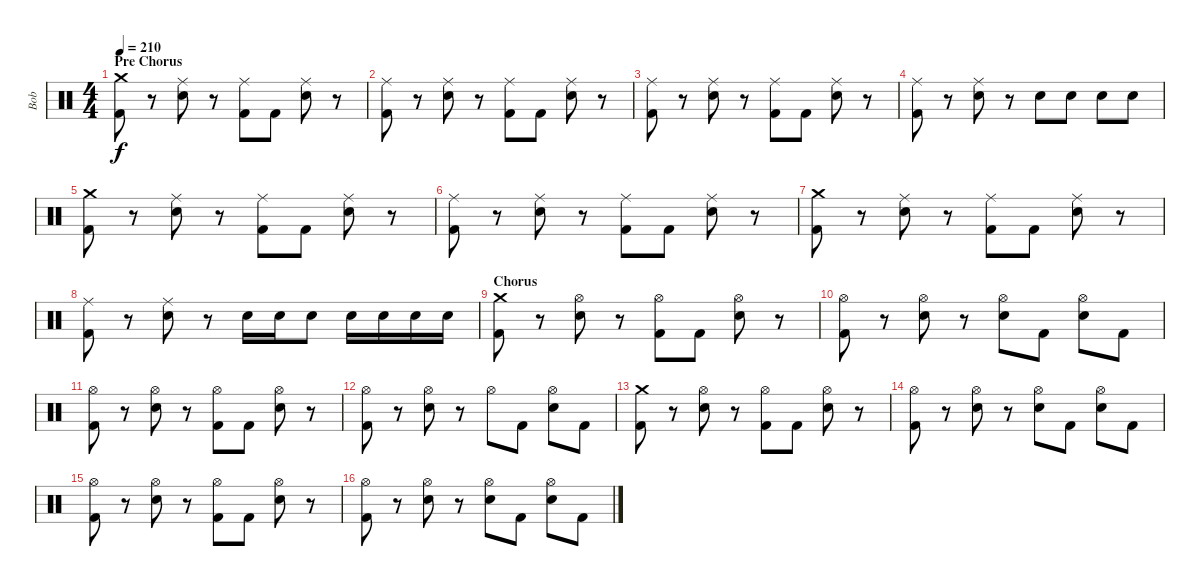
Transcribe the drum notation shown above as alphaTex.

\track ("Bob" "Bob") {instrument percussion}
\staff {score}
\articulation defaults
\ts (4 4)
\section ("" "Pre Chorus")
\tempo 210
\clef neutral
\ks c
("Crash medium (hit)" "Kick (hit) 2").8{dy f} r.8 ("Ride (middle)" "Electric Snare (hit)").8 r.8 ("Ride (middle)" "Kick (hit) 2").8 "Kick (hit) 2".8 ("Ride (middle)" "Electric Snare (hit)").8 r.8 |
("Ride (middle)" "Kick (hit) 2").8 r.8 ("Ride (middle)" "Electric Snare (hit)").8 r.8 ("Ride (middle)" "Kick (hit) 2").8 "Kick (hit) 2".8 ("Ride (middle)" "Electric Snare (hit)").8 r.8 |
("Ride (middle)" "Kick (hit) 2").8 r.8 ("Ride (middle)" "Electric Snare (hit)").8 r.8 ("Ride (middle)" "Kick (hit) 2").8 "Kick (hit) 2".8 ("Ride (middle)" "Electric Snare (hit)").8 r.8 |
("Ride (middle)" "Kick (hit) 2").8 r.8 ("Ride (middle)" "Electric Snare (hit)").8 r.8 "Electric Snare (hit)".8 "Electric Snare (hit)".8 "Electric Snare (hit)".8 "Electric Snare (hit)".8 |
("Crash medium (hit)" "Kick (hit) 2").8 r.8 ("Ride (middle)" "Electric Snare (hit)").8 r.8 ("Ride (middle)" "Kick (hit) 2").8 "Kick (hit) 2".8 ("Ride (middle)" "Electric Snare (hit)").8 r.8 |
("Ride (middle)" "Kick (hit) 2").8 r.8 ("Ride (middle)" "Electric Snare (hit)").8 r.8 ("Ride (middle)" "Kick (hit) 2").8 "Kick (hit) 2".8 ("Ride (middle)" "Electric Snare (hit)").8 r.8 |
("Crash medium (hit)" "Kick (hit) 2").8 r.8 ("Ride (middle)" "Electric Snare (hit)").8 r.8 ("Ride (middle)" "Kick (hit) 2").8 "Kick (hit) 2".8 ("Ride (middle)" "Electric Snare (hit)").8 r.8 |
("Ride (middle)" "Kick (hit) 2").8 r.8 ("Ride (middle)" "Electric Snare (hit)").8 r.8 "Electric Snare (hit)".16 "Electric Snare (hit)".16 "Electric Snare (hit)".8 "Electric Snare (hit)".16 "Electric Snare (hit)".16 "Electric Snare (hit)".16 "Electric Snare (hit)".16 |
\section ("" "Chorus")
("Crash medium (hit)" "Kick (hit) 2").8 r.8 ("Hi-Hat (open)" "Electric Snare (hit)").8 r.8 ("Hi-Hat (open)" "Kick (hit) 2").8 "Kick (hit) 2".8 ("Hi-Hat (open)" "Electric Snare (hit)").8 r.8 |
("Hi-Hat (open)" "Kick (hit) 2").8 r.8 ("Hi-Hat (open)" "Electric Snare (hit)").8 r.8 ("Hi-Hat (open)" "Electric Snare (hit)").8 "Kick (hit) 2".8 ("Hi-Hat (open)" "Electric Snare (hit)").8 "Kick (hit) 2".8 |
("Hi-Hat (open)" "Kick (hit) 2").8 r.8 ("Hi-Hat (open)" "Electric Snare (hit)").8 r.8 ("Hi-Hat (open)" "Kick (hit) 2").8 "Kick (hit) 2".8 ("Hi-Hat (open)" "Electric Snare (hit)").8 r.8 |
("Hi-Hat (open)" "Kick (hit) 2").8 r.8 ("Hi-Hat (open)" "Electric Snare (hit)").8 r.8 "Hi-Hat (open)".8 "Kick (hit) 2".8 ("Hi-Hat (open)" "Electric Snare (hit)").8 "Kick (hit) 2".8 |
("Crash medium (hit)" "Kick (hit) 2").8 r.8 ("Hi-Hat (open)" "Electric Snare (hit)").8 r.8 ("Hi-Hat (open)" "Kick (hit) 2").8 "Kick (hit) 2".8 ("Hi-Hat (open)" "Electric Snare (hit)").8 r.8 |
("Hi-Hat (open)" "Kick (hit) 2").8 r.8 ("Hi-Hat (open)" "Electric Snare (hit)").8 r.8 ("Hi-Hat (open)" "Electric Snare (hit)").8 "Kick (hit) 2".8 ("Hi-Hat (open)" "Electric Snare (hit)").8 "Kick (hit) 2".8 |
("Hi-Hat (open)" "Kick (hit) 2").8 r.8 ("Hi-Hat (open)" "Electric Snare (hit)").8 r.8 ("Hi-Hat (open)" "Kick (hit) 2").8 "Kick (hit) 2".8 ("Hi-Hat (open)" "Electric Snare (hit)").8 r.8 |
("Hi-Hat (open)" "Kick (hit) 2").8 r.8 ("Hi-Hat (open)" "Electric Snare (hit)").8 r.8 ("Hi-Hat (open)" "Electric Snare (hit)").8 "Kick (hit) 2".8 ("Hi-Hat (open)" "Electric Snare (hit)").8 "Kick (hit) 2".8
